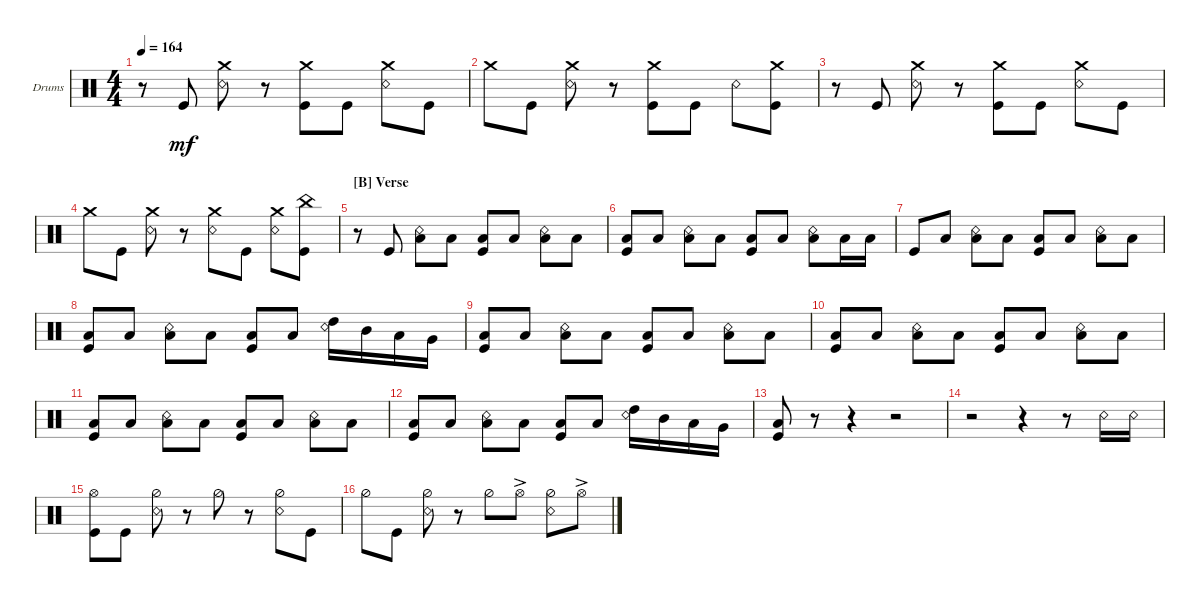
\defaultSystemsLayout 4
\bracketExtendMode groupsimilarinstruments
\firstSystemTrackNameOrientation horizontal
\otherSystemsTrackNameOrientation horizontal
\track ("Drums" "Drums") {instrument percussion}
\staff {score}
\articulation defaults
\ts (4 4)
\tempo 164
\clef neutral
\scale
0.333333
\ks c
r.8{dy mf} "Kick (hit)".8 ("Snare (rim shot)" "Crash medium (hit)").8 r.8 ("Kick (hit)" "Crash medium (hit)").8 "Kick (hit)".8 ("Snare (rim shot)" "Crash medium (hit)").8 "Kick (hit)".8 |
\scale
0.333333 "Crash medium (hit)".8 "Kick (hit)".8 ("Snare (rim shot)" "Crash medium (hit)").8 r.8 ("Kick (hit)" "Crash medium (hit)").8 "Kick (hit)".8 "Snare (rim shot)".8 ("Crash medium (hit)" "Kick (hit)").8 |
\scale
0.333333 r.8 "Kick (hit)".8 ("Snare (rim shot)" "Crash medium (hit)").8 r.8 ("Kick (hit)" "Crash medium (hit)").8 "Kick (hit)".8 ("Snare (rim shot)" "Crash medium (hit)").8 "Kick (hit)".8 |
\scale
0.333333 "Crash medium (hit)".8 "Kick (hit)".8 ("Snare (rim shot)" "Crash medium (hit)").8 r.8 ("Snare (rim shot)" "Crash medium (hit)").8 "Kick (hit)".8 ("Snare (rim shot)" "Crash medium (hit)").8 ("Kick (hit)" "China (hit)").8 |
\section ("B" "Verse")
\scale
0.333333 r.8 "Kick (hit)".8 ("Low Tom (hit)" "Snare (rim shot)").8 "Low Tom (hit)".8 ("Low Tom (hit)" "Kick (hit)").8 "Low Tom (hit)".8 ("Low Tom (hit)" "Snare (rim shot)").8 "Low Tom (hit)".8 |
\scale
0.333333 ("Low Tom (hit)" "Kick (hit)").8 "Low Tom (hit)".8 ("Snare (rim shot)" "Low Tom (hit)").8 "Low Tom (hit)".8 ("Low Tom (hit)" "Kick (hit)").8 "Low Tom (hit)".8 ("Snare (rim shot)" "Low Tom (hit)").8 "Low Tom (hit)".16 "Low Tom (hit)".16 |
\scale
0.333333 "Kick (hit)".8 "Low Tom (hit)".8 ("Low Tom (hit)" "Snare (rim shot)").8 "Low Tom (hit)".8 ("Low Tom (hit)" "Kick (hit)").8 "Low Tom (hit)".8 ("Low Tom (hit)" "Snare (rim shot)").8 "Low Tom (hit)".8 |
\scale
0.333333 ("Low Tom (hit)" "Kick (hit)").8 "Low Tom (hit)".8 ("Snare (rim shot)" "Low Tom (hit)").8 "Low Tom (hit)".8 ("Low Tom (hit)" "Kick (hit)").8 "Low Tom (hit)".8 ("Snare (rim shot)" "High Tom (hit)").16 "Mid Tom (hit)".16 "Low Tom (hit)".16 "Very Low Tom (hit)".16 |
\scale
0.333333 ("Low Tom (hit)" "Kick (hit)").8 "Low Tom (hit)".8 ("Low Tom (hit)" "Snare (rim shot)").8 "Low Tom (hit)".8 ("Low Tom (hit)" "Kick (hit)").8 "Low Tom (hit)".8 ("Low Tom (hit)" "Snare (rim shot)").8 "Low Tom (hit)".8 |
\scale
0.333333 ("Low Tom (hit)" "Kick (hit)").8 "Low Tom (hit)".8 ("Snare (rim shot)" "Low Tom (hit)").8 "Low Tom (hit)".8 ("Low Tom (hit)" "Kick (hit)").8 "Low Tom (hit)".8 ("Snare (rim shot)" "Low Tom (hit)").8 "Low Tom (hit)".8 |
\scale
0.333333 ("Low Tom (hit)" "Kick (hit)").8 "Low Tom (hit)".8 ("Low Tom (hit)" "Snare (rim shot)").8 "Low Tom (hit)".8 ("Low Tom (hit)" "Kick (hit)").8 "Low Tom (hit)".8 ("Low Tom (hit)" "Snare (rim shot)").8 "Low Tom (hit)".8 |
\scale
0.333333 ("Low Tom (hit)" "Kick (hit)").8 "Low Tom (hit)".8 ("Snare (rim shot)" "Low Tom (hit)").8 "Low Tom (hit)".8 ("Low Tom (hit)" "Kick (hit)").8 "Low Tom (hit)".8 ("Snare (rim shot)" "High Tom (hit)").16 "Mid Tom (hit)".16 "Low Tom (hit)".16 "Very Low Tom (hit)".16 |
\scale
0.333333 ("Low Tom (hit)" "Kick (hit)").8 r.8 r.4 r.2 |
\scale
0.333333 r.2 r.4 r.8 "Snare (rim shot)".16 "Snare (rim shot)".16 |
\scale
0.333333 ("Kick (hit)" "Hi-Hat (open)").8 "Kick (hit)".8 ("Snare (rim shot)" "Hi-Hat (half)").8 r.8 "Hi-Hat (half)".8 r.8 ("Snare (rim shot)" "Hi-Hat (half)").8 "Kick (hit)".8 |
\scale
0.333333 "Hi-Hat (half)".8 "Kick (hit)".8 ("Snare (rim shot)" "Hi-Hat (half)").8 r.8 "Hi-Hat (half)".8 "Hi-Hat (open)"{ac}.8 ("Hi-Hat (half)" "Snare (rim shot)").8 "Hi-Hat (open)"{ac}.8
